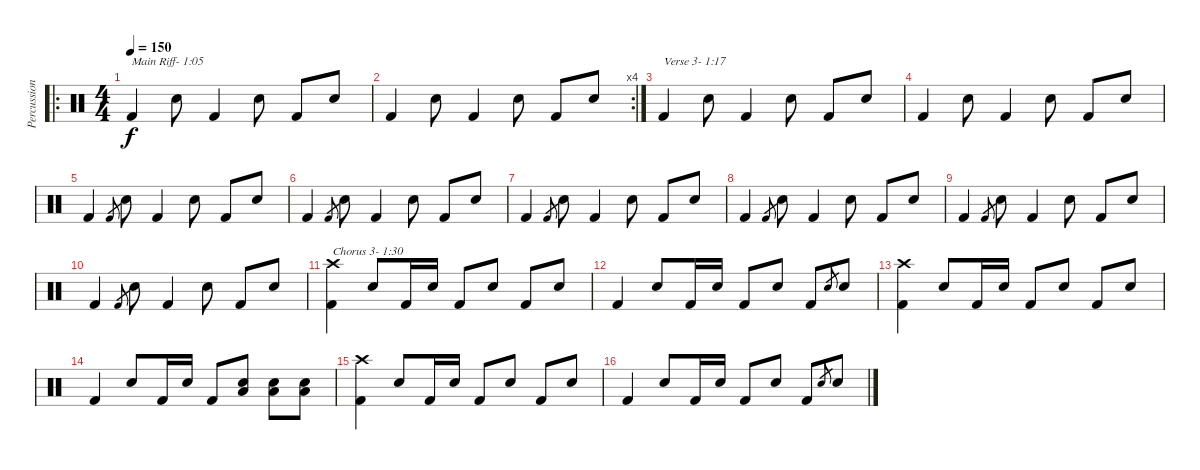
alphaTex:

\track ("Percussion" "Percussion") {instrument percussion}
\staff {score}
\articulation defaults
\ro
\ts (4 4)
\tempo 150
\clef neutral
\ks c "Kick (hit) 2".4{txt "Main Riff- 1:05" dy f} "Snare (hit) 2".8 "Kick (hit) 2".4 "Snare (hit) 2".8 "Kick (hit) 2".8 "Snare (hit) 2".8
|
\rc 4 "Kick (hit) 2".4 "Snare (hit) 2".8 "Kick (hit) 2".4 "Snare (hit) 2".8 "Kick (hit) 2".8 "Snare (hit) 2".8
|
"Kick (hit) 2".4{txt "Verse 3- 1:17"} "Snare (hit) 2".8 "Kick (hit) 2".4 "Snare (hit) 2".8 "Kick (hit) 2".8 "Snare (hit) 2".8 |
"Kick (hit) 2".4 "Snare (hit) 2".8 "Kick (hit) 2".4 "Snare (hit) 2".8 "Kick (hit) 2".8 "Snare (hit) 2".8 |
"Kick (hit) 2".4 "Kick (hit) 2".8{gr} "Snare (hit) 2".8 "Kick (hit) 2".4 "Snare (hit) 2".8 "Kick (hit) 2".8 "Snare (hit) 2".8 |
"Kick (hit) 2".4 "Kick (hit) 2".8{gr} "Snare (hit) 2".8 "Kick (hit) 2".4 "Snare (hit) 2".8 "Kick (hit) 2".8 "Snare (hit) 2".8 |
"Kick (hit) 2".4 "Kick (hit) 2".8{gr} "Snare (hit) 2".8 "Kick (hit) 2".4 "Snare (hit) 2".8 "Kick (hit) 2".8 "Snare (hit) 2".8 |
"Kick (hit) 2".4 "Kick (hit) 2".8{gr} "Snare (hit) 2".8 "Kick (hit) 2".4 "Snare (hit) 2".8 "Kick (hit) 2".8 "Snare (hit) 2".8 |
"Kick (hit) 2".4 "Kick (hit) 2".8{gr} "Snare (hit) 2".8 "Kick (hit) 2".4 "Snare (hit) 2".8 "Kick (hit) 2".8 "Snare (hit) 2".8 |
"Kick (hit) 2".4 "Kick (hit) 2".8{gr} "Snare (hit) 2".8 "Kick (hit) 2".4 "Snare (hit) 2".8 "Kick (hit) 2".8 "Snare (hit) 2".8 |
("Crash high (hit)" "Kick (hit) 2").4{txt "Chorus 3- 1:30"} "Snare (hit) 2".8 "Kick (hit) 2".16 "Snare (hit) 2".16 "Kick (hit) 2".8 "Snare (hit) 2".8 "Kick (hit) 2".8 "Snare (hit) 2".8 |
"Kick (hit) 2".4 "Snare (hit) 2".8 "Kick (hit) 2".16 "Snare (hit) 2".16 "Kick (hit) 2".8 "Snare (hit) 2".8 "Kick (hit) 2".8 "Snare (hit) 2".8{gr} "Snare (hit) 2".8 |
("Crash high (hit)" "Kick (hit) 2").4 "Snare (hit) 2".8 "Kick (hit) 2".16 "Snare (hit) 2".16 "Kick (hit) 2".8 "Snare (hit) 2".8 "Kick (hit) 2".8 "Snare (hit) 2".8 |
"Kick (hit) 2".4 "Snare (hit) 2".8 "Kick (hit) 2".16 "Snare (hit) 2".16 "Kick (hit) 2".8 ("Low Floor Tom (hit)" "Snare (hit) 2").8 ("Low Floor Tom (hit)" "Snare (hit) 2").8 ("Low Floor Tom (hit)" "Snare (hit) 2").8 |
("Crash high (hit)" "Kick (hit) 2").4 "Snare (hit) 2".8 "Kick (hit) 2".16 "Snare (hit) 2".16 "Kick (hit) 2".8 "Snare (hit) 2".8 "Kick (hit) 2".8 "Snare (hit) 2".8 |
"Kick (hit) 2".4 "Snare (hit) 2".8 "Kick (hit) 2".16 "Snare (hit) 2".16 "Kick (hit) 2".8 "Snare (hit) 2".8 "Kick (hit) 2".8 "Snare (hit) 2".8{gr} "Snare (hit) 2".8
